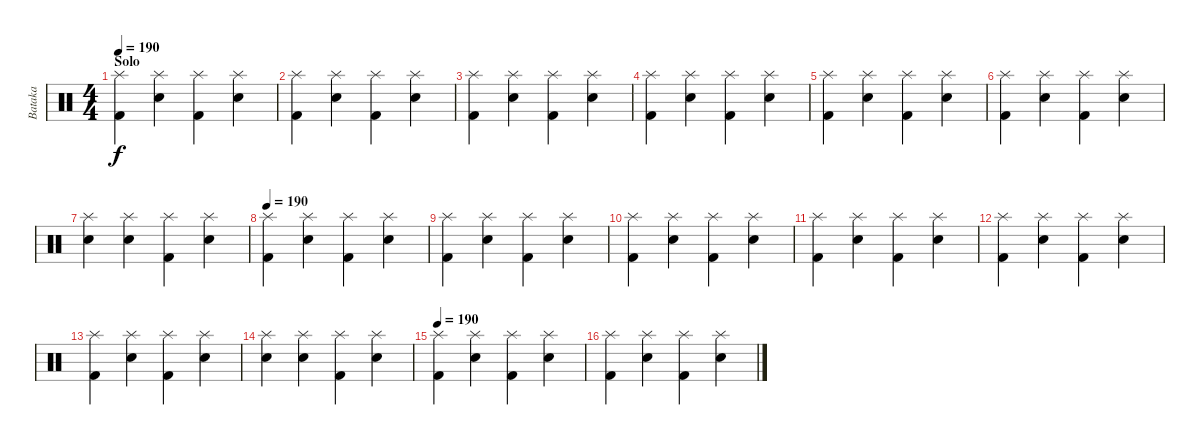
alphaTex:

\track ("Bataka" "Bataka") {instrument percussion}
\staff {score}
\articulation defaults
\ts (4 4)
\section ("" "Solo")
\tempo 190
\clef neutral
\ks c
("Splash (hit)" "Kick (hit) 2").4{dy f} ("Splash (hit)" "Electric Snare (hit)").4 ("Splash (hit)" "Kick (hit) 2").4 ("Splash (hit)" "Electric Snare (hit)").4 |
("Splash (hit)" "Kick (hit) 2").4 ("Splash (hit)" "Electric Snare (hit)").4 ("Splash (hit)" "Kick (hit) 2").4 ("Splash (hit)" "Electric Snare (hit)").4 |
("Splash (hit)" "Kick (hit) 2").4 ("Splash (hit)" "Electric Snare (hit)").4 ("Splash (hit)" "Kick (hit) 2").4 ("Splash (hit)" "Electric Snare (hit)").4 |
("Splash (hit)" "Kick (hit) 2").4 ("Splash (hit)" "Electric Snare (hit)").4 ("Splash (hit)" "Kick (hit) 2").4 ("Splash (hit)" "Electric Snare (hit)").4 |
("Splash (hit)" "Kick (hit) 2").4 ("Splash (hit)" "Electric Snare (hit)").4 ("Splash (hit)" "Kick (hit) 2").4 ("Splash (hit)" "Electric Snare (hit)").4 |
("Splash (hit)" "Kick (hit) 2").4 ("Splash (hit)" "Electric Snare (hit)").4 ("Splash (hit)" "Kick (hit) 2").4 ("Splash (hit)" "Electric Snare (hit)").4 |
("Splash (hit)" "Electric Snare (hit)").4 ("Splash (hit)" "Electric Snare (hit)").4 ("Splash (hit)" "Kick (hit) 2").4 ("Splash (hit)" "Electric Snare (hit)").4 |
\tempo 190
("Splash (hit)" "Kick (hit) 2").4 ("Splash (hit)" "Electric Snare (hit)").4 ("Splash (hit)" "Kick (hit) 2").4 ("Splash (hit)" "Electric Snare (hit)").4 |
("Splash (hit)" "Kick (hit) 2").4 ("Splash (hit)" "Electric Snare (hit)").4 ("Splash (hit)" "Kick (hit) 2").4 ("Splash (hit)" "Electric Snare (hit)").4 |
("Splash (hit)" "Kick (hit) 2").4 ("Splash (hit)" "Electric Snare (hit)").4 ("Splash (hit)" "Kick (hit) 2").4 ("Splash (hit)" "Electric Snare (hit)").4 |
("Splash (hit)" "Kick (hit) 2").4 ("Splash (hit)" "Electric Snare (hit)").4 ("Splash (hit)" "Kick (hit) 2").4 ("Splash (hit)" "Electric Snare (hit)").4 |
("Splash (hit)" "Kick (hit) 2").4 ("Splash (hit)" "Electric Snare (hit)").4 ("Splash (hit)" "Kick (hit) 2").4 ("Splash (hit)" "Electric Snare (hit)").4 |
("Splash (hit)" "Kick (hit) 2").4 ("Splash (hit)" "Electric Snare (hit)").4 ("Splash (hit)" "Kick (hit) 2").4 ("Splash (hit)" "Electric Snare (hit)").4 |
("Splash (hit)" "Electric Snare (hit)").4 ("Splash (hit)" "Electric Snare (hit)").4 ("Splash (hit)" "Kick (hit) 2").4 ("Splash (hit)" "Electric Snare (hit)").4 |
\tempo 190
("Splash (hit)" "Kick (hit) 2").4 ("Splash (hit)" "Electric Snare (hit)").4 ("Splash (hit)" "Kick (hit) 2").4 ("Splash (hit)" "Electric Snare (hit)").4 |
("Splash (hit)" "Kick (hit) 2").4 ("Splash (hit)" "Electric Snare (hit)").4 ("Splash (hit)" "Kick (hit) 2").4 ("Splash (hit)" "Electric Snare (hit)").4
